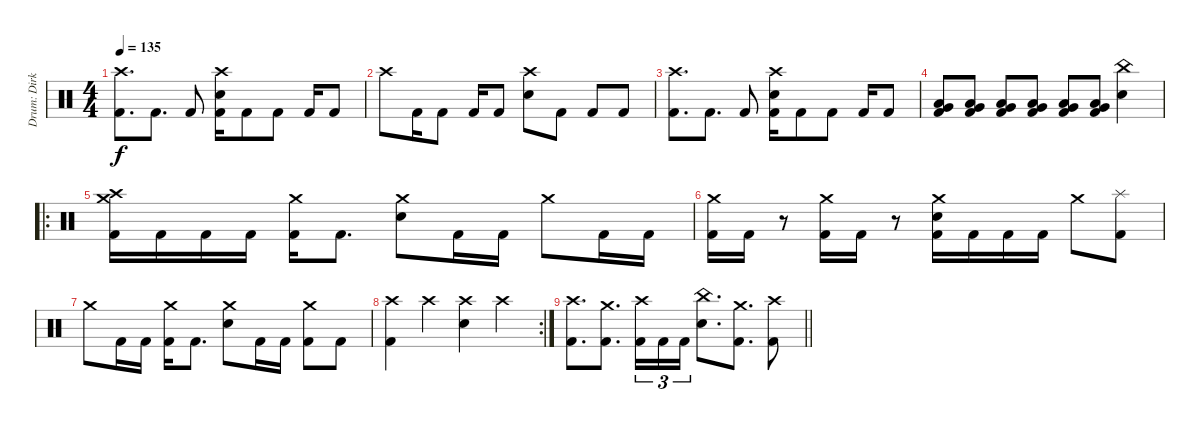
\track ("Drum: Dirk" "Drum: Dirk") {instrument percussion}
\staff {score}
\articulation defaults
\ts (4 4)
\tempo 135
\clef neutral
\ks c
("Crash high (hit)" "Kick (hit) 2").8{d dy f} "Kick (hit) 2".8{d} "Kick (hit) 2".8 ("Crash high (hit)" "Electric Snare (hit)" "Kick (hit) 2").16 "Kick (hit) 2".8 "Kick (hit) 2".8 "Kick (hit) 2".16 "Kick (hit) 2".8 |
"Crash high (hit)".8 "Kick (hit) 2".16 "Kick (hit) 2".8 "Kick (hit) 2".16 "Kick (hit) 2".8 ("Crash high (hit)" "Electric Snare (hit)").8 "Kick (hit) 2".8 "Kick (hit) 2".8 "Kick (hit) 2".8 |
("Crash high (hit)" "Kick (hit) 2").8{d} "Kick (hit) 2".8{d} "Kick (hit) 2".8 ("Crash high (hit)" "Electric Snare (hit)" "Kick (hit) 2").16 "Kick (hit) 2".8 "Kick (hit) 2".8 "Kick (hit) 2".16 "Kick (hit) 2".8 |
("Low Floor Tom (hit)" "Very Low Tom (hit)" "Kick (hit) 2").8 ("Low Floor Tom (hit)" "Very Low Tom (hit)" "Kick (hit) 2").8 ("Low Floor Tom (hit)" "Very Low Tom (hit)" "Kick (hit) 2").8 ("Low Floor Tom (hit)" "Very Low Tom (hit)" "Kick (hit) 2").8 ("Low Floor Tom (hit)" "Very Low Tom (hit)" "Kick (hit) 2").8 ("Low Floor Tom (hit)" "Very Low Tom (hit)" "Kick (hit) 2").8 ("China (hit)" "Electric Snare (hit)").4 |
\ro
("Crash high (hit)" "Crash medium (hit)" "Kick (hit) 2").16 "Kick (hit) 2".16 "Kick (hit) 2".16 "Kick (hit) 2".16 ("Crash medium (hit)" "Kick (hit) 2").16 "Kick (hit) 2".8{d} ("Crash medium (hit)" "Electric Snare (hit)").8 "Kick (hit) 2".16 "Kick (hit) 2".16 "Crash medium (hit)".8 "Kick (hit) 2".16 "Kick (hit) 2".16 |
("Crash medium (hit)" "Kick (hit) 2").16 "Kick (hit) 2".16 r.8 ("Crash medium (hit)" "Kick (hit) 2").16 "Kick (hit) 2".16 r.8 ("Crash medium (hit)" "Electric Snare (hit)" "Kick (hit) 2").16 "Kick (hit) 2".16 "Kick (hit) 2".16 "Kick (hit) 2".16 "Crash medium (hit)".8 ("Splash (hit)" "Kick (hit) 2").8 |
"Crash medium (hit)".8 "Kick (hit) 2".16 "Kick (hit) 2".16 ("Crash medium (hit)" "Kick (hit) 2").16 "Kick (hit) 2".8{d} ("Crash medium (hit)" "Electric Snare (hit)").8 "Kick (hit) 2".16 "Kick (hit) 2".16 ("Crash medium (hit)" "Kick (hit) 2").8 "Kick (hit) 2".8 |
\rc 2
("Crash high (hit)" "Kick (hit) 2").4 "Crash high (hit)".4 ("Crash high (hit)" "Electric Snare (hit)").4 "Crash high (hit)".4 |
\barLineRight lightlight
("Crash high (hit)" "Kick (hit) 2").8{d} ("Crash medium (hit)" "Kick (hit) 2").8{d} ("Crash high (hit)" "Kick (hit) 2").16{tu (3 2)} "Kick (hit) 2".16{tu (3 2)} "Kick (hit) 2".16{tu (3 2)} ("China (hit)" "Electric Snare (hit)").8{d} ("Crash medium (hit)" "Kick (hit) 2").8{d} ("Crash high (hit)" "Kick (hit) 2").8
